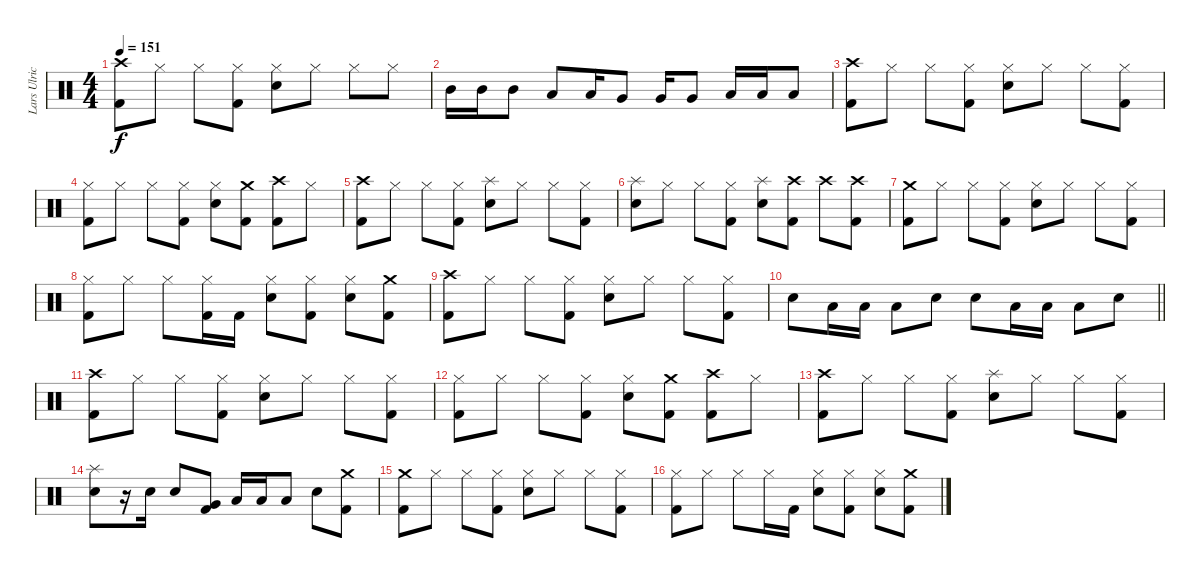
\track ("Lars Ulrich" "Lars Ulric") {instrument percussion}
\staff {score}
\articulation defaults
\ts (4 4)
\tempo 151
\clef neutral
\ks c
("Crash high (hit)" "Kick (hit) 2").8{dy f} "Hi-Hat (closed)".8 "Hi-Hat (closed)".8 ("Hi-Hat (closed)" "Kick (hit) 2").8 ("Hi-Hat (closed)" "Snare (hit) 2").8 "Hi-Hat (closed)".8 "Hi-Hat (closed)".8 "Hi-Hat (closed)".8 |
"Mid Tom (hit)".16 "Mid Tom (hit)".16 "Mid Tom (hit)".8 "Low Tom (hit)".8 "Low Tom (hit)".16 "Very Low Tom (hit)".8 "Very Low Tom (hit)".16 "Very Low Tom (hit)".8 "Low Floor Tom (hit)".16 "Low Floor Tom (hit)".16 "Low Floor Tom (hit)".8 |
("Crash high (hit)" "Kick (hit) 2").8 "Hi-Hat (closed)".8 "Hi-Hat (closed)".8 ("Hi-Hat (closed)" "Kick (hit) 2").8 ("Hi-Hat (closed)" "Snare (hit) 2").8 "Hi-Hat (closed)".8 "Hi-Hat (closed)".8 ("Hi-Hat (closed)" "Kick (hit) 2").8 |
("Hi-Hat (closed)" "Kick (hit) 2").8 "Hi-Hat (closed)".8 "Hi-Hat (closed)".8 ("Hi-Hat (closed)" "Kick (hit) 2").8 ("Hi-Hat (closed)" "Snare (hit) 2").8 ("Crash medium (hit)" "Kick (hit) 2").8 ("Crash high (hit)" "Kick (hit) 2").8 "Hi-Hat (closed)".8 |
("Crash high (hit)" "Kick (hit) 2").8 "Hi-Hat (closed)".8 "Hi-Hat (closed)".8 ("Hi-Hat (closed)" "Kick (hit) 2").8 ("Splash (hit)" "Snare (hit) 2").8 "Hi-Hat (closed)".8 "Hi-Hat (closed)".8 ("Hi-Hat (closed)" "Kick (hit) 2").8 |
("Splash (hit)" "Snare (hit) 2").8 "Hi-Hat (closed)".8 "Hi-Hat (closed)".8 ("Hi-Hat (closed)" "Kick (hit) 2").8 ("Splash (hit)" "Snare (hit) 2").8 ("Crash high (hit)" "Kick (hit) 2").8 "Crash high (hit)".8{volume 0} ("Crash high (hit)" "Kick (hit) 2").8{volume 16} |
("Crash medium (hit)" "Kick (hit) 2").8 "Hi-Hat (closed)".8 "Hi-Hat (closed)".8 ("Hi-Hat (closed)" "Kick (hit) 2").8 ("Hi-Hat (closed)" "Snare (hit) 2").8 "Hi-Hat (closed)".8 "Hi-Hat (closed)".8 ("Hi-Hat (closed)" "Kick (hit) 2").8 |
("Hi-Hat (closed)" "Kick (hit) 2").8 "Hi-Hat (closed)".8 "Hi-Hat (closed)".8 ("Hi-Hat (closed)" "Kick (hit) 2").16 "Kick (hit) 2".16 ("Hi-Hat (closed)" "Snare (hit) 2").8 ("Hi-Hat (closed)" "Kick (hit) 2").8 ("Hi-Hat (closed)" "Snare (hit) 2").8 ("Crash medium (hit)" "Kick (hit) 2").8 |
("Crash high (hit)" "Kick (hit) 2").8 "Hi-Hat (closed)".8 "Hi-Hat (closed)".8 ("Hi-Hat (closed)" "Kick (hit) 2").8 ("Hi-Hat (closed)" "Snare (hit) 2").8 "Hi-Hat (closed)".8 "Hi-Hat (closed)".8 ("Hi-Hat (closed)" "Kick (hit) 2").8 |
\barLineRight lightlight "Snare (hit) 2".8 "Low Tom (hit)".16 "Low Tom (hit)".16 "Low Tom (hit)".8 "Snare (hit) 2".8 "Snare (hit) 2".8 "Low Tom (hit)".16 "Low Tom (hit)".16 "Low Tom (hit)".8 "Snare (hit) 2".8
|
("Crash high (hit)" "Kick (hit) 2").8 "Hi-Hat (closed)".8 "Hi-Hat (closed)".8 ("Hi-Hat (closed)" "Kick (hit) 2").8 ("Hi-Hat (closed)" "Snare (hit) 2").8 "Hi-Hat (closed)".8 "Hi-Hat (closed)".8 ("Hi-Hat (closed)" "Kick (hit) 2").8 |
("Hi-Hat (closed)" "Kick (hit) 2").8 "Hi-Hat (closed)".8 "Hi-Hat (closed)".8 ("Hi-Hat (closed)" "Kick (hit) 2").8 ("Hi-Hat (closed)" "Snare (hit) 2").8 ("Crash medium (hit)" "Kick (hit) 2").8 ("Crash high (hit)" "Kick (hit) 2").8 "Hi-Hat (closed)".8 |
("Crash high (hit)" "Kick (hit) 2").8 "Hi-Hat (closed)".8 "Hi-Hat (closed)".8 ("Hi-Hat (closed)" "Kick (hit) 2").8 ("Splash (hit)" "Snare (hit) 2").8 "Hi-Hat (closed)".8 "Hi-Hat (closed)".8 ("Hi-Hat (closed)" "Kick (hit) 2").8 |
("Splash (hit)" "Snare (hit) 2").8 r.16 "Snare (hit) 2".16 "Snare (hit) 2".8 ("Very Low Tom (hit)" "Kick (hit) 2").8 "Low Tom (hit)".16 "Low Tom (hit)".16 "Low Tom (hit)".8 "Snare (hit) 2".8 ("Crash medium (hit)" "Kick (hit) 2").8 |
("Crash medium (hit)" "Kick (hit) 2").8 "Hi-Hat (closed)".8 "Hi-Hat (closed)".8 ("Hi-Hat (closed)" "Kick (hit) 2").8 ("Hi-Hat (closed)" "Snare (hit) 2").8 "Hi-Hat (closed)".8 "Hi-Hat (closed)".8 ("Hi-Hat (closed)" "Kick (hit) 2").8 |
("Hi-Hat (closed)" "Kick (hit) 2").8 "Hi-Hat (closed)".8 "Hi-Hat (closed)".8 "Hi-Hat (closed)".16 "Kick (hit) 2".16 ("Hi-Hat (closed)" "Snare (hit) 2").8 ("Hi-Hat (closed)" "Kick (hit) 2").8 ("Hi-Hat (closed)" "Snare (hit) 2").8 ("Crash medium (hit)" "Kick (hit) 2").8
